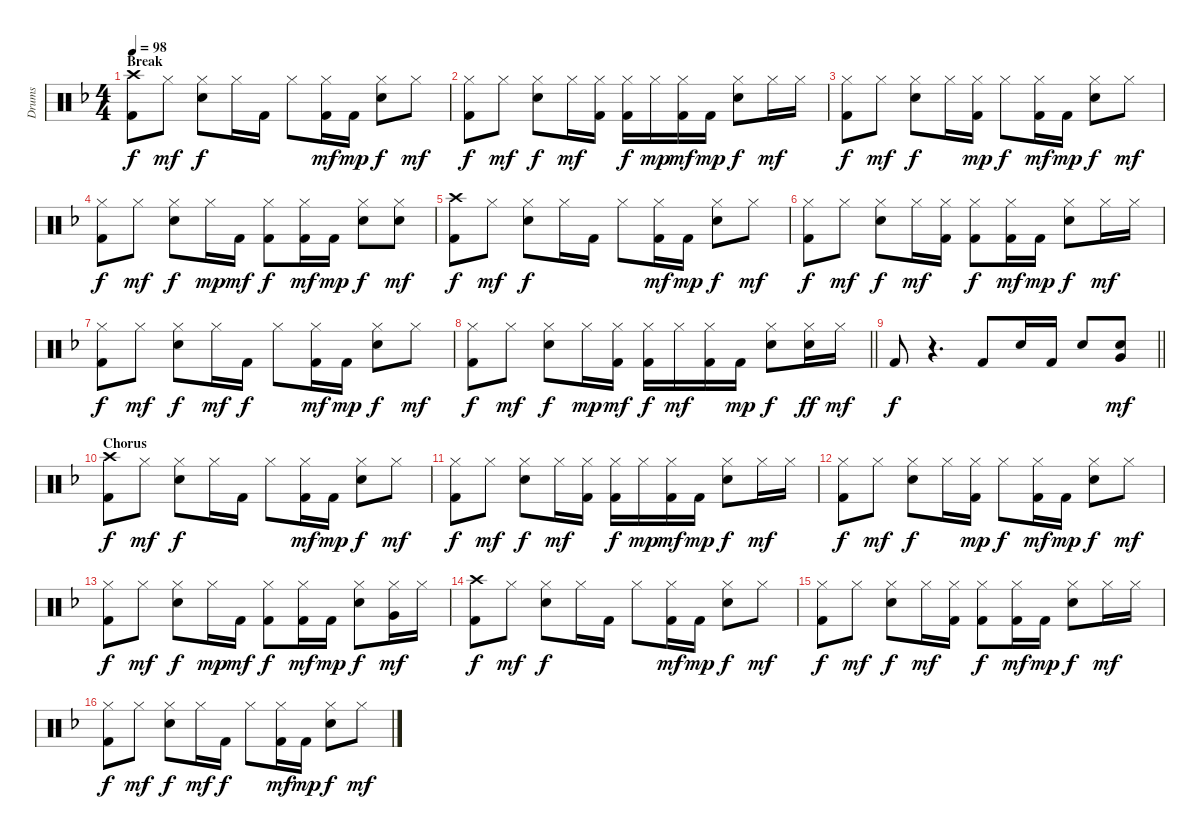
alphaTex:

\track ("Drums" "Drums") {instrument percussion}
\staff {score}
\articulation defaults
\ts (4 4)
\section ("" "Break")
\tempo 98
\clef neutral
\ks f
("Crash high (hit)" "Kick (hit) 2").8{dy f} "Hi-Hat (closed)".8{dy mf} ("Hi-Hat (closed)" "Electric Snare (hit)").8{dy f} "Hi-Hat (closed)".16 "Kick (hit) 2".16 "Hi-Hat (closed)".8 ("Hi-Hat (closed)" "Kick (hit) 2").16{dy mf} "Kick (hit) 2".16{dy mp} ("Hi-Hat (closed)" "Electric Snare (hit)").8{dy f} "Hi-Hat (closed)".8{dy mf} |
("Hi-Hat (closed)" "Kick (hit) 2").8{dy f} "Hi-Hat (closed)".8{dy mf} ("Hi-Hat (closed)" "Electric Snare (hit)").8{dy f} "Hi-Hat (closed)".16{dy mf} ("Hi-Hat (closed)" "Kick (hit) 2").16 ("Hi-Hat (closed)" "Kick (hit) 2").16{dy f} "Hi-Hat (closed)".16{dy mp} ("Hi-Hat (closed)" "Kick (hit) 2").16{dy mf} "Kick (hit) 2".16{dy mp} ("Hi-Hat (closed)" "Electric Snare (hit)").8{dy f} "Hi-Hat (closed)".16{dy mf} "Hi-Hat (closed)".16 |
("Hi-Hat (closed)" "Kick (hit) 2").8{dy f} "Hi-Hat (closed)".8{dy mf} ("Hi-Hat (closed)" "Electric Snare (hit)").8{dy f} "Hi-Hat (closed)".16 ("Hi-Hat (closed)" "Kick (hit) 2").16{dy mp} "Hi-Hat (closed)".8{dy f} ("Hi-Hat (closed)" "Kick (hit) 2").16{dy mf} "Kick (hit) 2".16{dy mp} ("Hi-Hat (closed)" "Electric Snare (hit)").8{dy f} "Hi-Hat (closed)".8{dy mf} |
("Hi-Hat (closed)" "Kick (hit) 2").8{dy f} "Hi-Hat (closed)".8{dy mf} ("Hi-Hat (closed)" "Electric Snare (hit)").8{dy f} "Hi-Hat (closed)".16{dy mp} "Kick (hit) 2".16{dy mf} ("Hi-Hat (closed)" "Kick (hit) 2").8{dy f} ("Hi-Hat (closed)" "Kick (hit) 2").16{dy mf} "Kick (hit) 2".16{dy mp} ("Hi-Hat (closed)" "Electric Snare (hit)").8{dy f} ("Hi-Hat (closed)" "Electric Snare (hit)").8{dy mf} |
("Crash high (hit)" "Kick (hit) 2").8{dy f} "Hi-Hat (closed)".8{dy mf} ("Hi-Hat (closed)" "Electric Snare (hit)").8{dy f} "Hi-Hat (closed)".16 "Kick (hit) 2".16 "Hi-Hat (closed)".8 ("Hi-Hat (closed)" "Kick (hit) 2").16{dy mf} "Kick (hit) 2".16{dy mp} ("Hi-Hat (closed)" "Electric Snare (hit)").8{dy f} "Hi-Hat (closed)".8{dy mf} |
("Hi-Hat (closed)" "Kick (hit) 2").8{dy f} "Hi-Hat (closed)".8{dy mf} ("Hi-Hat (closed)" "Electric Snare (hit)").8{dy f} "Hi-Hat (closed)".16{dy mf} ("Hi-Hat (closed)" "Kick (hit) 2").16 ("Hi-Hat (closed)" "Kick (hit) 2").8{dy f} ("Hi-Hat (closed)" "Kick (hit) 2").16{dy mf} "Kick (hit) 2".16{dy mp} ("Hi-Hat (closed)" "Electric Snare (hit)").8{dy f} "Hi-Hat (closed)".16{dy mf} "Hi-Hat (closed)".16 |
("Hi-Hat (closed)" "Kick (hit) 2").8{dy f} "Hi-Hat (closed)".8{dy mf} ("Hi-Hat (closed)" "Electric Snare (hit)").8{dy f} "Hi-Hat (closed)".16{dy mf} "Kick (hit) 2".16{dy f} "Hi-Hat (closed)".8 ("Hi-Hat (closed)" "Kick (hit) 2").16{dy mf} "Kick (hit) 2".16{dy mp} ("Hi-Hat (closed)" "Electric Snare (hit)").8{dy f} "Hi-Hat (closed)".8{dy mf} |
\barLineRight lightlight
("Hi-Hat (closed)" "Kick (hit) 2").8{dy f} "Hi-Hat (closed)".8{dy mf} ("Hi-Hat (closed)" "Electric Snare (hit)").8{dy f} "Hi-Hat (closed)".16{dy mp} ("Hi-Hat (closed)" "Kick (hit) 2").16{dy mf} ("Hi-Hat (closed)" "Kick (hit) 2").16{dy f} "Hi-Hat (closed)".16{dy mf} ("Hi-Hat (closed)" "Kick (hit) 2").16 "Kick (hit) 2".16{dy mp} ("Hi-Hat (closed)" "Electric Snare (hit)").8{dy f} ("Hi-Hat (closed)" "Electric Snare (hit)").16{dy ff} "Hi-Hat (closed)".16{dy mf} |
\barLineRight lightlight "Kick (hit) 2".8{dy f}
r.4{d} "Kick (hit) 2".8 "Electric Snare (hit)".16 "Kick (hit) 2".16 "Electric Snare (hit)".8 ("Very Low Tom (hit)" "Electric Snare (hit)").8{dy mf} |
\section ("" "Chorus")
("Crash high (hit)" "Kick (hit) 2").8{dy f} "Hi-Hat (closed)".8{dy mf} ("Hi-Hat (closed)" "Electric Snare (hit)").8{dy f} "Hi-Hat (closed)".16 "Kick (hit) 2".16 "Hi-Hat (closed)".8 ("Hi-Hat (closed)" "Kick (hit) 2").16{dy mf} "Kick (hit) 2".16{dy mp} ("Hi-Hat (closed)" "Electric Snare (hit)").8{dy f} "Hi-Hat (closed)".8{dy mf} |
("Hi-Hat (closed)" "Kick (hit) 2").8{dy f} "Hi-Hat (closed)".8{dy mf} ("Hi-Hat (closed)" "Electric Snare (hit)").8{dy f} "Hi-Hat (closed)".16{dy mf} ("Hi-Hat (closed)" "Kick (hit) 2").16 ("Hi-Hat (closed)" "Kick (hit) 2").16{dy f} "Hi-Hat (closed)".16{dy mp} ("Hi-Hat (closed)" "Kick (hit) 2").16{dy mf} "Kick (hit) 2".16{dy mp} ("Hi-Hat (closed)" "Electric Snare (hit)").8{dy f} "Hi-Hat (closed)".16{dy mf} "Hi-Hat (closed)".16 |
("Hi-Hat (closed)" "Kick (hit) 2").8{dy f} "Hi-Hat (closed)".8{dy mf} ("Hi-Hat (closed)" "Electric Snare (hit)").8{dy f} "Hi-Hat (closed)".16 ("Hi-Hat (closed)" "Kick (hit) 2").16{dy mp} "Hi-Hat (closed)".8{dy f} ("Hi-Hat (closed)" "Kick (hit) 2").16{dy mf} "Kick (hit) 2".16{dy mp} ("Hi-Hat (closed)" "Electric Snare (hit)").8{dy f} "Hi-Hat (closed)".8{dy mf} |
("Hi-Hat (closed)" "Kick (hit) 2").8{dy f} "Hi-Hat (closed)".8{dy mf} ("Hi-Hat (closed)" "Electric Snare (hit)").8{dy f} "Hi-Hat (closed)".16{dy mp} "Kick (hit) 2".16{dy mf} ("Hi-Hat (closed)" "Kick (hit) 2").8{dy f} ("Hi-Hat (closed)" "Kick (hit) 2").16{dy mf} "Kick (hit) 2".16{dy mp} ("Hi-Hat (closed)" "Electric Snare (hit)").8{dy f} ("Hi-Hat (closed)" "Very Low Tom (hit)").16{dy mf} "Hi-Hat (closed)".16 |
("Crash high (hit)" "Kick (hit) 2").8{dy f} "Hi-Hat (closed)".8{dy mf} ("Hi-Hat (closed)" "Electric Snare (hit)").8{dy f} "Hi-Hat (closed)".16 "Kick (hit) 2".16 "Hi-Hat (closed)".8 ("Hi-Hat (closed)" "Kick (hit) 2").16{dy mf} "Kick (hit) 2".16{dy mp} ("Hi-Hat (closed)" "Electric Snare (hit)").8{dy f} "Hi-Hat (closed)".8{dy mf} |
("Hi-Hat (closed)" "Kick (hit) 2").8{dy f} "Hi-Hat (closed)".8{dy mf} ("Hi-Hat (closed)" "Electric Snare (hit)").8{dy f} "Hi-Hat (closed)".16{dy mf} ("Hi-Hat (closed)" "Kick (hit) 2").16 ("Hi-Hat (closed)" "Kick (hit) 2").8{dy f} ("Hi-Hat (closed)" "Kick (hit) 2").16{dy mf} "Kick (hit) 2".16{dy mp} ("Hi-Hat (closed)" "Electric Snare (hit)").8{dy f} "Hi-Hat (closed)".16{dy mf} "Hi-Hat (closed)".16 |
("Hi-Hat (closed)" "Kick (hit) 2").8{dy f} "Hi-Hat (closed)".8{dy mf} ("Hi-Hat (closed)" "Electric Snare (hit)").8{dy f} "Hi-Hat (closed)".16{dy mf} "Kick (hit) 2".16{dy f} "Hi-Hat (closed)".8 ("Hi-Hat (closed)" "Kick (hit) 2").16{dy mf} "Kick (hit) 2".16{dy mp} ("Hi-Hat (closed)" "Electric Snare (hit)").8{dy f} "Hi-Hat (closed)".8{dy mf}
